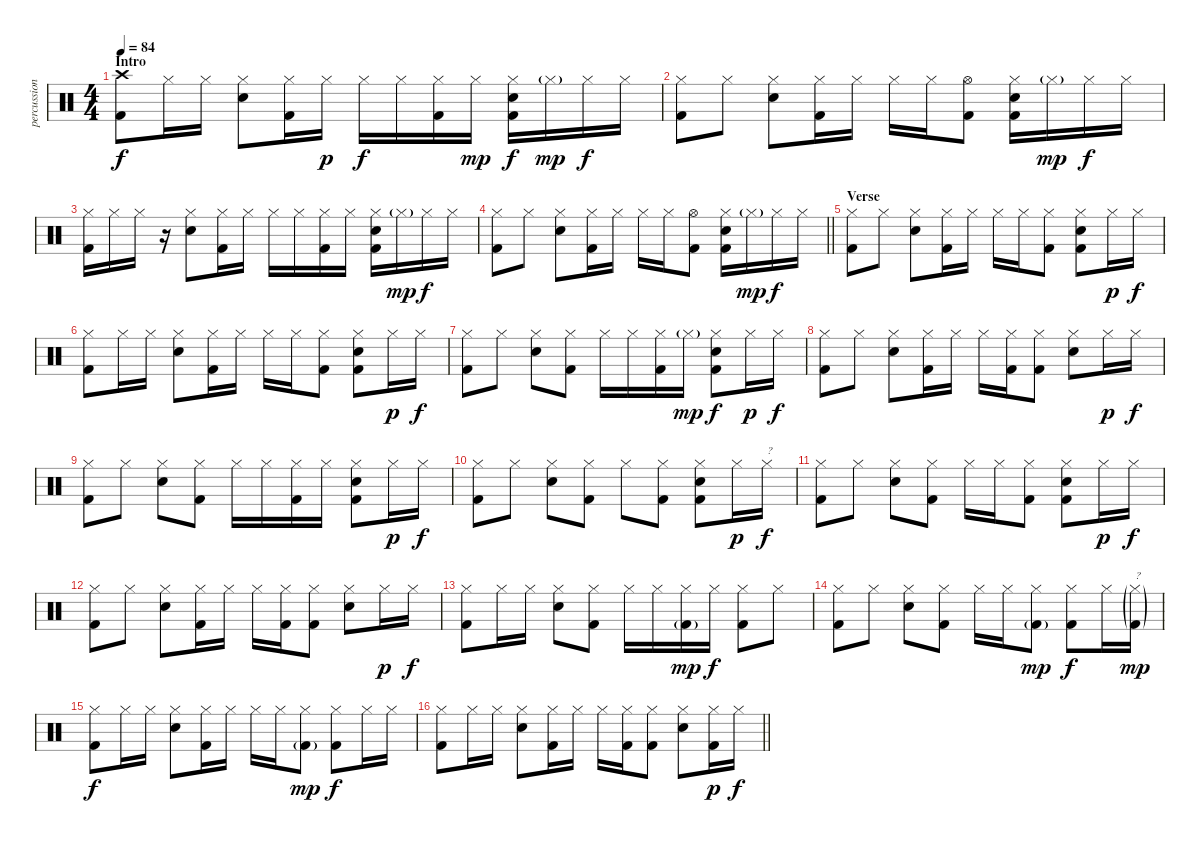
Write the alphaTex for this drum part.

\track ("percussion" "percussion") {instrument percussion}
\staff {score}
\articulation defaults
\ts (4 4)
\section ("" "Intro")
\tempo 84
\clef neutral
\ks c
("Crash high (hit)" "Kick (hit) 2").8{dy f} "Hi-Hat (closed)".16 "Hi-Hat (closed)".16 ("Snare (hit) 2" "Hi-Hat (closed)").8 ("Hi-Hat (closed)" "Kick (hit) 2").16 "Hi-Hat (closed)".16{dy p} "Hi-Hat (closed)".16{dy f} "Hi-Hat (closed)".16 ("Hi-Hat (closed)" "Kick (hit) 2").16 "Hi-Hat (closed)".16{dy mp} ("Snare (hit) 2" "Hi-Hat (closed)" "Kick (hit) 2").16{dy f} "Hi-Hat (closed)"{g}.16{dy mp} "Hi-Hat (closed)".16{dy f} "Hi-Hat (closed)".16 |
("Hi-Hat (closed)" "Kick (hit) 2").8 "Hi-Hat (closed)".8 ("Snare (hit) 2" "Hi-Hat (closed)").8 ("Hi-Hat (closed)" "Kick (hit) 2").16 "Hi-Hat (closed)".16 "Hi-Hat (closed)".16 "Hi-Hat (closed)".16 ("Hi-Hat (open)" "Kick (hit) 2").8 ("Snare (hit) 2" "Hi-Hat (closed)" "Kick (hit) 2").16 "Hi-Hat (closed)"{g}.16{dy mp} "Hi-Hat (closed)".16{dy f} "Hi-Hat (closed)".16 |
("Hi-Hat (closed)" "Kick (hit) 2").16 "Hi-Hat (closed)".16 "Hi-Hat (closed)".16 r.16 ("Snare (hit) 2" "Hi-Hat (closed)").8 ("Hi-Hat (closed)" "Kick (hit) 2").16 "Hi-Hat (closed)".16 "Hi-Hat (closed)".16 "Hi-Hat (closed)".16 ("Hi-Hat (closed)" "Kick (hit) 2").16 "Hi-Hat (closed)".16 ("Snare (hit) 2" "Hi-Hat (closed)" "Kick (hit) 2").16 "Hi-Hat (closed)"{g}.16{dy mp} "Hi-Hat (closed)".16{dy f} "Hi-Hat (closed)".16 |
\barLineRight lightlight
("Hi-Hat (closed)" "Kick (hit) 2").8 "Hi-Hat (closed)".8 ("Snare (hit) 2" "Hi-Hat (closed)").8 ("Hi-Hat (closed)" "Kick (hit) 2").16 "Hi-Hat (closed)".16 "Hi-Hat (closed)".16 "Hi-Hat (closed)".16 ("Hi-Hat (open)" "Kick (hit) 2").8 ("Snare (hit) 2" "Hi-Hat (closed)" "Kick (hit) 2").16 "Hi-Hat (closed)"{g}.16{dy mp} "Hi-Hat (closed)".16{dy f} "Hi-Hat (closed)".16 |
\section ("" "Verse")
("Hi-Hat (closed)" "Kick (hit) 2").8 "Hi-Hat (closed)".8 ("Snare (hit) 2" "Hi-Hat (closed)").8 ("Hi-Hat (closed)" "Kick (hit) 2").16 "Hi-Hat (closed)".16 "Hi-Hat (closed)".16 "Hi-Hat (closed)".16 ("Hi-Hat (closed)" "Kick (hit) 2").8 ("Snare (hit) 2" "Hi-Hat (closed)" "Kick (hit) 2").8 "Hi-Hat (closed)".16{dy p} "Hi-Hat (closed)".16{dy f} |
("Hi-Hat (closed)" "Kick (hit) 2").8 "Hi-Hat (closed)".16 "Hi-Hat (closed)".16 ("Snare (hit) 2" "Hi-Hat (closed)").8 ("Hi-Hat (closed)" "Kick (hit) 2").16 "Hi-Hat (closed)".16 "Hi-Hat (closed)".16 "Hi-Hat (closed)".16 ("Hi-Hat (closed)" "Kick (hit) 2").8 ("Snare (hit) 2" "Hi-Hat (closed)" "Kick (hit) 2").8 "Hi-Hat (closed)".16{dy p} "Hi-Hat (closed)".16{dy f} |
("Hi-Hat (closed)" "Kick (hit) 2").8 "Hi-Hat (closed)".8 ("Snare (hit) 2" "Hi-Hat (closed)").8 ("Hi-Hat (closed)" "Kick (hit) 2").8 "Hi-Hat (closed)".16 "Hi-Hat (closed)".16 ("Hi-Hat (closed)" "Kick (hit) 2").16 "Hi-Hat (closed)"{g}.16{dy mp} ("Snare (hit) 2" "Hi-Hat (closed)" "Kick (hit) 2").8{dy f} "Hi-Hat (closed)".16{dy p} "Hi-Hat (closed)".16{dy f} |
("Hi-Hat (closed)" "Kick (hit) 2").8 "Hi-Hat (closed)".8 ("Snare (hit) 2" "Hi-Hat (closed)").8 ("Hi-Hat (closed)" "Kick (hit) 2").16 "Hi-Hat (closed)".16 "Hi-Hat (closed)".16 ("Hi-Hat (closed)" "Kick (hit) 2").16 ("Hi-Hat (closed)" "Kick (hit) 2").8 ("Snare (hit) 2" "Hi-Hat (closed)").8 "Hi-Hat (closed)".16{dy p} "Hi-Hat (closed)".16{dy f} |
("Hi-Hat (closed)" "Kick (hit) 2").8 "Hi-Hat (closed)".8 ("Snare (hit) 2" "Hi-Hat (closed)").8 ("Hi-Hat (closed)" "Kick (hit) 2").8 "Hi-Hat (closed)".16 "Hi-Hat (closed)".16 ("Hi-Hat (closed)" "Kick (hit) 2").16 "Hi-Hat (closed)".16 ("Snare (hit) 2" "Hi-Hat (closed)" "Kick (hit) 2").8 "Hi-Hat (closed)".16{dy p} "Hi-Hat (closed)".16{dy f} |
("Hi-Hat (closed)" "Kick (hit) 2").8 "Hi-Hat (closed)".8 ("Snare (hit) 2" "Hi-Hat (closed)").8 ("Hi-Hat (closed)" "Kick (hit) 2").8 "Hi-Hat (closed)".8 ("Hi-Hat (closed)" "Kick (hit) 2").8 ("Snare (hit) 2" "Hi-Hat (closed)" "Kick (hit) 2").8 "Hi-Hat (closed)".16{dy p} "Hi-Hat (closed)".16{txt "?" dy f} |
("Hi-Hat (closed)" "Kick (hit) 2").8 "Hi-Hat (closed)".8 ("Snare (hit) 2" "Hi-Hat (closed)").8 ("Hi-Hat (closed)" "Kick (hit) 2").8 "Hi-Hat (closed)".16 "Hi-Hat (closed)".16 ("Hi-Hat (closed)" "Kick (hit) 2").8 ("Snare (hit) 2" "Hi-Hat (closed)" "Kick (hit) 2").8 "Hi-Hat (closed)".16{dy p} "Hi-Hat (closed)".16{dy f} |
("Hi-Hat (closed)" "Kick (hit) 2").8 "Hi-Hat (closed)".8 ("Snare (hit) 2" "Hi-Hat (closed)").8 ("Hi-Hat (closed)" "Kick (hit) 2").16 "Hi-Hat (closed)".16 "Hi-Hat (closed)".16 ("Hi-Hat (closed)" "Kick (hit) 2").16 ("Hi-Hat (closed)" "Kick (hit) 2").8 ("Snare (hit) 2" "Hi-Hat (closed)").8 "Hi-Hat (closed)".16{dy p} "Hi-Hat (closed)".16{dy f} |
("Hi-Hat (closed)" "Kick (hit) 2").8 "Hi-Hat (closed)".16 "Hi-Hat (closed)".16 ("Snare (hit) 2" "Hi-Hat (closed)").8 ("Hi-Hat (closed)" "Kick (hit) 2").8 "Hi-Hat (closed)".16 "Hi-Hat (closed)".16 ("Hi-Hat (closed)" "Kick (hit) 2"{g}).16{dy mp} "Hi-Hat (closed)".16{dy f} ("Hi-Hat (closed)" "Kick (hit) 2").8 "Hi-Hat (closed)".8 |
("Hi-Hat (closed)" "Kick (hit) 2").8 "Hi-Hat (closed)".8 ("Snare (hit) 2" "Hi-Hat (closed)").8 ("Hi-Hat (closed)" "Kick (hit) 2").8 "Hi-Hat (closed)".16 "Hi-Hat (closed)".16 ("Hi-Hat (closed)" "Kick (hit) 2"{g}).8{dy mp} ("Hi-Hat (closed)" "Kick (hit) 2").8{dy f} "Hi-Hat (closed)".16 ("Hi-Hat (closed)"{g} "Kick (hit) 2"{g}).16{txt "?" dy mp} |
("Hi-Hat (closed)" "Kick (hit) 2").8{dy f} "Hi-Hat (closed)".16 "Hi-Hat (closed)".16 ("Snare (hit) 2" "Hi-Hat (closed)").8 ("Hi-Hat (closed)" "Kick (hit) 2").16 "Hi-Hat (closed)".16 "Hi-Hat (closed)".16 "Hi-Hat (closed)".16 ("Hi-Hat (closed)" "Kick (hit) 2"{g}).8{dy mp} ("Hi-Hat (closed)" "Kick (hit) 2").8{dy f} "Hi-Hat (closed)".16 "Hi-Hat (closed)".16 |
\barLineRight lightlight
("Hi-Hat (closed)" "Kick (hit) 2").8 "Hi-Hat (closed)".16 "Hi-Hat (closed)".16 ("Snare (hit) 2" "Hi-Hat (closed)").8 ("Hi-Hat (closed)" "Kick (hit) 2").16 "Hi-Hat (closed)".16 "Hi-Hat (closed)".16 ("Hi-Hat (closed)" "Kick (hit) 2").16 ("Hi-Hat (closed)" "Kick (hit) 2").8 ("Snare (hit) 2" "Hi-Hat (closed)").8 ("Hi-Hat (closed)" "Kick (hit) 2").16{dy p} "Hi-Hat (closed)".16{dy f}
